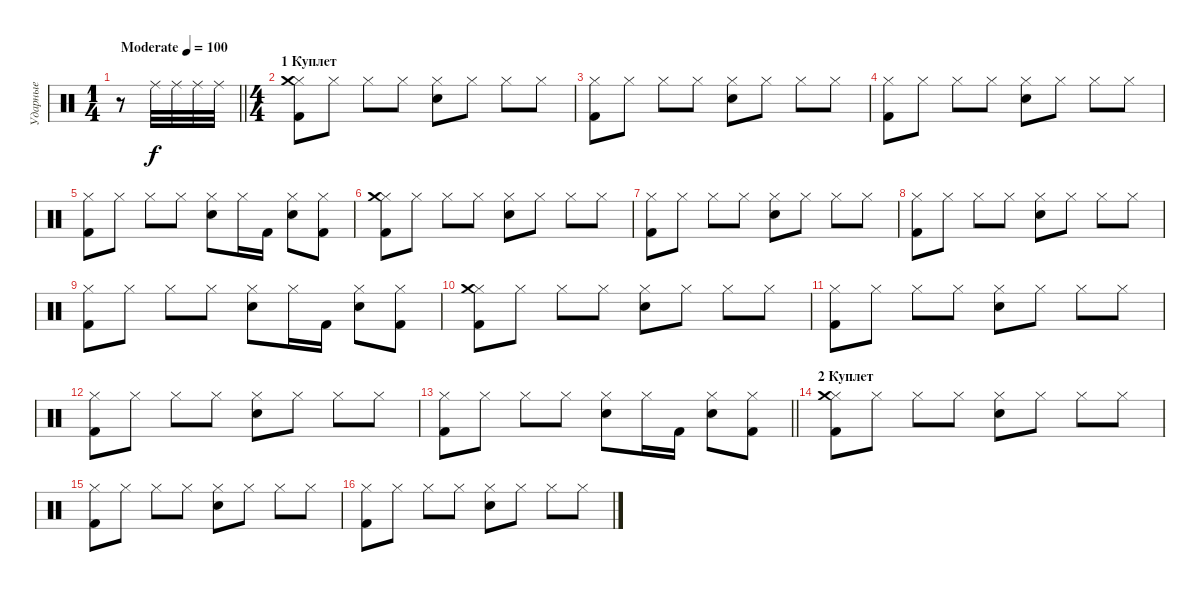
\track ("Ударные" "Ударные") {instrument percussion}
\staff {score}
\articulation defaults
\ts (1 4)
\tempo (100 "Moderate")
\clef neutral
\barLineRight lightlight
\ks c
r.8{dy f} "Ride (middle)".32 "Ride (middle)".32 "Ride (middle)".32 "Ride (middle)".32 |
\ts (4 4)
\section ("" "1 Куплет")
("Hi-Hat (closed)" "Kick (hit) 2" "Crash medium (hit)").8 "Hi-Hat (closed)".8 "Hi-Hat (closed)".8 "Hi-Hat (closed)".8 ("Hi-Hat (closed)" "Snare (hit) 2").8 "Hi-Hat (closed)".8 "Hi-Hat (closed)".8 "Hi-Hat (closed)".8 |
("Hi-Hat (closed)" "Kick (hit) 2").8 "Hi-Hat (closed)".8 "Hi-Hat (closed)".8 "Hi-Hat (closed)".8 ("Hi-Hat (closed)" "Snare (hit) 2").8 "Hi-Hat (closed)".8 "Hi-Hat (closed)".8 "Hi-Hat (closed)".8 |
("Hi-Hat (closed)" "Kick (hit) 2").8 "Hi-Hat (closed)".8 "Hi-Hat (closed)".8 "Hi-Hat (closed)".8 ("Hi-Hat (closed)" "Snare (hit) 2").8 "Hi-Hat (closed)".8 "Hi-Hat (closed)".8 "Hi-Hat (closed)".8 |
("Hi-Hat (closed)" "Kick (hit) 2").8 "Hi-Hat (closed)".8 "Hi-Hat (closed)".8 "Hi-Hat (closed)".8 ("Hi-Hat (closed)" "Snare (hit) 2").8 "Hi-Hat (closed)".16 "Kick (hit) 2".16 ("Hi-Hat (closed)" "Snare (hit) 2").8 ("Hi-Hat (closed)" "Kick (hit) 2").8 |
("Hi-Hat (closed)" "Kick (hit) 2" "Crash medium (hit)").8 "Hi-Hat (closed)".8 "Hi-Hat (closed)".8 "Hi-Hat (closed)".8 ("Hi-Hat (closed)" "Snare (hit) 2").8 "Hi-Hat (closed)".8 "Hi-Hat (closed)".8 "Hi-Hat (closed)".8 |
("Hi-Hat (closed)" "Kick (hit) 2").8 "Hi-Hat (closed)".8 "Hi-Hat (closed)".8 "Hi-Hat (closed)".8 ("Hi-Hat (closed)" "Snare (hit) 2").8 "Hi-Hat (closed)".8 "Hi-Hat (closed)".8 "Hi-Hat (closed)".8 |
("Hi-Hat (closed)" "Kick (hit) 2").8 "Hi-Hat (closed)".8 "Hi-Hat (closed)".8 "Hi-Hat (closed)".8 ("Hi-Hat (closed)" "Snare (hit) 2").8 "Hi-Hat (closed)".8 "Hi-Hat (closed)".8 "Hi-Hat (closed)".8 |
("Hi-Hat (closed)" "Kick (hit) 2").8 "Hi-Hat (closed)".8 "Hi-Hat (closed)".8 "Hi-Hat (closed)".8 ("Hi-Hat (closed)" "Snare (hit) 2").8 "Hi-Hat (closed)".16 "Kick (hit) 2".16 ("Hi-Hat (closed)" "Snare (hit) 2").8 ("Hi-Hat (closed)" "Kick (hit) 2").8 |
("Hi-Hat (closed)" "Kick (hit) 2" "Crash medium (hit)").8 "Hi-Hat (closed)".8 "Hi-Hat (closed)".8 "Hi-Hat (closed)".8 ("Hi-Hat (closed)" "Snare (hit) 2").8 "Hi-Hat (closed)".8 "Hi-Hat (closed)".8 "Hi-Hat (closed)".8 |
("Hi-Hat (closed)" "Kick (hit) 2").8 "Hi-Hat (closed)".8 "Hi-Hat (closed)".8 "Hi-Hat (closed)".8 ("Hi-Hat (closed)" "Snare (hit) 2").8 "Hi-Hat (closed)".8 "Hi-Hat (closed)".8 "Hi-Hat (closed)".8 |
("Hi-Hat (closed)" "Kick (hit) 2").8 "Hi-Hat (closed)".8 "Hi-Hat (closed)".8 "Hi-Hat (closed)".8 ("Hi-Hat (closed)" "Snare (hit) 2").8 "Hi-Hat (closed)".8 "Hi-Hat (closed)".8 "Hi-Hat (closed)".8 |
\barLineRight lightlight
("Hi-Hat (closed)" "Kick (hit) 2").8 "Hi-Hat (closed)".8 "Hi-Hat (closed)".8 "Hi-Hat (closed)".8 ("Hi-Hat (closed)" "Snare (hit) 2").8 "Hi-Hat (closed)".16 "Kick (hit) 2".16 ("Hi-Hat (closed)" "Snare (hit) 2").8 ("Hi-Hat (closed)" "Kick (hit) 2").8 |
\section ("" "2 Куплет")
("Hi-Hat (closed)" "Kick (hit) 2" "Crash medium (hit)").8 "Hi-Hat (closed)".8 "Hi-Hat (closed)".8 "Hi-Hat (closed)".8 ("Hi-Hat (closed)" "Snare (hit) 2").8 "Hi-Hat (closed)".8 "Hi-Hat (closed)".8 "Hi-Hat (closed)".8 |
("Hi-Hat (closed)" "Kick (hit) 2").8 "Hi-Hat (closed)".8 "Hi-Hat (closed)".8 "Hi-Hat (closed)".8 ("Hi-Hat (closed)" "Snare (hit) 2").8 "Hi-Hat (closed)".8 "Hi-Hat (closed)".8 "Hi-Hat (closed)".8 |
("Hi-Hat (closed)" "Kick (hit) 2").8 "Hi-Hat (closed)".8 "Hi-Hat (closed)".8 "Hi-Hat (closed)".8 ("Hi-Hat (closed)" "Snare (hit) 2").8 "Hi-Hat (closed)".8 "Hi-Hat (closed)".8 "Hi-Hat (closed)".8
